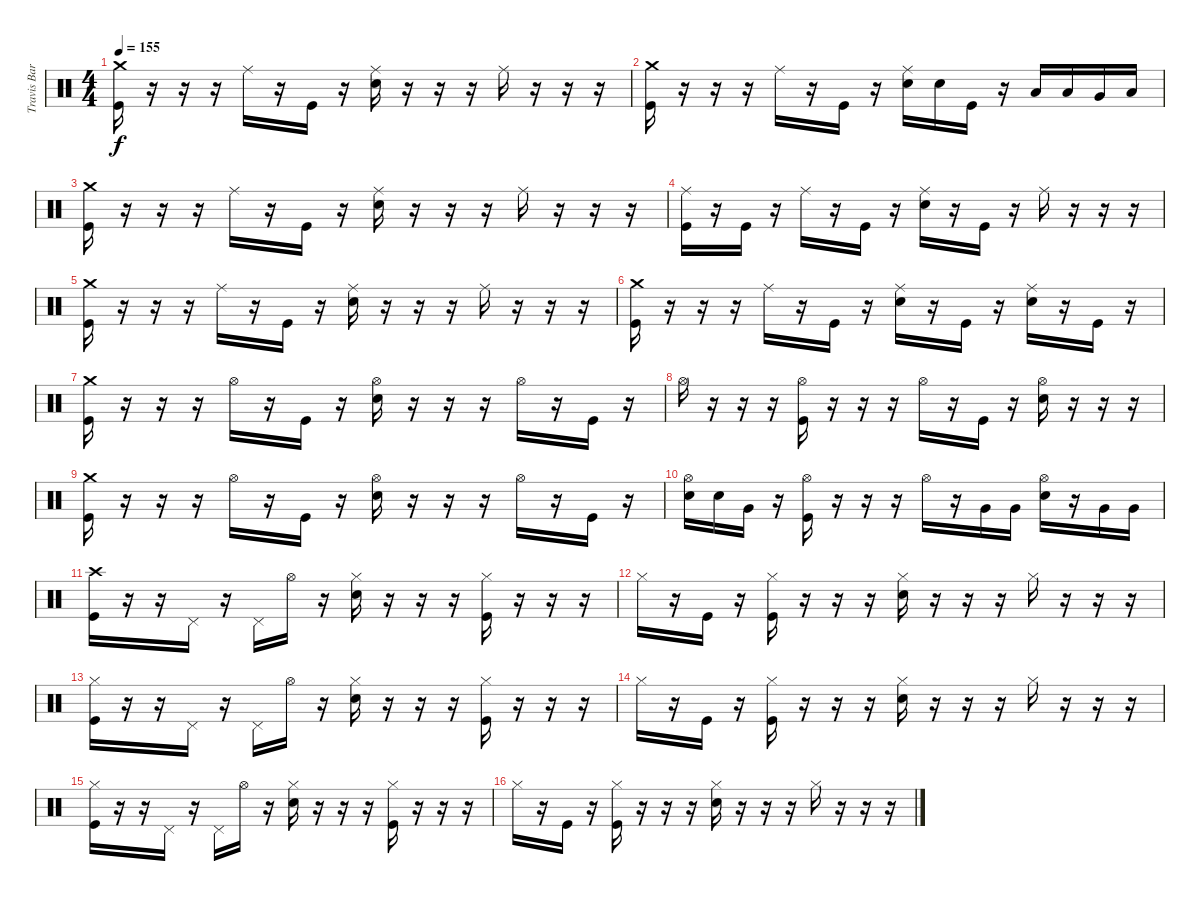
\track ("Travis Barker(drums)" "Travis Bar") {instrument percussion}
\staff {score}
\articulation defaults
\ts (4 4)
\tempo 155
\clef neutral
\ks c
("Crash medium (hit)" "Kick (hit)").16{dy f} r.16 r.16 r.16 "Ride (middle)".16 r.16 "Kick (hit)".16 r.16 ("Ride (middle)" "Electric Snare (hit)").16 r.16 r.16 r.16 "Ride (middle)".16 r.16 r.16 r.16 |
("Crash medium (hit)" "Kick (hit)").16 r.16 r.16 r.16 "Ride (middle)".16 r.16 "Kick (hit)".16 r.16 ("Ride (middle)" "Electric Snare (hit)").16 "Electric Snare (hit)".16 "Kick (hit)".16 r.16 "Low Tom (hit)".16 "Low Tom (hit)".16 "Very Low Tom (hit)".16 "Low Floor Tom (hit)".16 |
("Crash medium (hit)" "Kick (hit)").16 r.16 r.16 r.16 "Ride (middle)".16 r.16 "Kick (hit)".16 r.16 ("Ride (middle)" "Electric Snare (hit)").16 r.16 r.16 r.16 "Ride (middle)".16 r.16 r.16 r.16 |
("Ride (middle)" "Kick (hit)").16 r.16 "Kick (hit)".16 r.16 "Ride (middle)".16 r.16 "Kick (hit)".16 r.16 ("Ride (middle)" "Electric Snare (hit)").16 r.16 "Kick (hit)".16 r.16 "Ride (middle)".16 r.16 r.16 r.16 |
("Crash medium (hit)" "Kick (hit)").16 r.16 r.16 r.16 "Ride (middle)".16 r.16 "Kick (hit)".16 r.16 ("Ride (middle)" "Electric Snare (hit)").16 r.16 r.16 r.16 "Ride (middle)".16 r.16 r.16 r.16 |
("Crash medium (hit)" "Kick (hit)").16 r.16 r.16 r.16 "Ride (middle)".16 r.16 "Kick (hit)".16 r.16 ("Ride (middle)" "Electric Snare (hit)").16 r.16 "Kick (hit)".16 r.16 ("Ride (middle)" "Electric Snare (hit)").16 r.16 "Kick (hit)".16 r.16 |
("Crash medium (hit)" "Kick (hit)").16 r.16 r.16 r.16 "Hi-Hat (open)".16 r.16 "Kick (hit)".16 r.16 ("Hi-Hat (open)" "Electric Snare (hit)").16 r.16 r.16 r.16 "Hi-Hat (open)".16 r.16 "Kick (hit)".16 r.16 |
"Hi-Hat (open)".16 r.16 r.16 r.16 ("Hi-Hat (open)" "Kick (hit)").16 r.16 r.16 r.16 "Hi-Hat (open)".16 r.16 "Kick (hit)".16 r.16 ("Hi-Hat (open)" "Electric Snare (hit)").16 r.16 r.16 r.16 |
("Crash medium (hit)" "Kick (hit)").16 r.16 r.16 r.16 "Hi-Hat (open)".16 r.16 "Kick (hit)".16 r.16 ("Hi-Hat (open)" "Electric Snare (hit)").16 r.16 r.16 r.16 "Hi-Hat (open)".16 r.16 "Kick (hit)".16 r.16 |
("Hi-Hat (open)" "Electric Snare (hit)").16 "Electric Snare (hit)".16 "Very Low Tom (hit)".16 r.16 ("Hi-Hat (open)" "Kick (hit)").16 r.16 r.16 r.16 "Hi-Hat (open)".16 r.16 "Very Low Tom (hit)".16 "Very Low Tom (hit)".16 ("Hi-Hat (open)" "Electric Snare (hit)").16 r.16 "Very Low Tom (hit)".16 "Very Low Tom (hit)".16 |
("Crash high (hit)" "Kick (hit)").16 r.16 r.16 "Pedal Hi-Hat (hit)".16 r.16 "Pedal Hi-Hat (hit)".16 "Hi-Hat (open)".16 r.16 ("Hi-Hat (closed)" "Electric Snare (hit)").16 r.16 r.16 r.16 ("Hi-Hat (closed)" "Kick (hit)").16 r.16 r.16 r.16 |
"Hi-Hat (closed)".16 r.16 "Kick (hit)".16 r.16 ("Hi-Hat (closed)" "Kick (hit)").16 r.16 r.16 r.16 ("Hi-Hat (closed)" "Electric Snare (hit)").16 r.16 r.16 r.16 "Hi-Hat (closed)".16 r.16 r.16 r.16 |
("Hi-Hat (closed)" "Kick (hit)").16 r.16 r.16 "Pedal Hi-Hat (hit)".16 r.16 "Pedal Hi-Hat (hit)".16 "Hi-Hat (open)".16 r.16 ("Hi-Hat (closed)" "Electric Snare (hit)").16 r.16 r.16 r.16 ("Hi-Hat (closed)" "Kick (hit)").16 r.16 r.16 r.16 |
"Hi-Hat (closed)".16 r.16 "Kick (hit)".16 r.16 ("Hi-Hat (closed)" "Kick (hit)").16 r.16 r.16 r.16 ("Hi-Hat (closed)" "Electric Snare (hit)").16 r.16 r.16 r.16 "Hi-Hat (closed)".16 r.16 r.16 r.16 |
("Hi-Hat (closed)" "Kick (hit)").16 r.16 r.16 "Pedal Hi-Hat (hit)".16 r.16 "Pedal Hi-Hat (hit)".16 "Hi-Hat (open)".16 r.16 ("Hi-Hat (closed)" "Electric Snare (hit)").16 r.16 r.16 r.16 ("Hi-Hat (closed)" "Kick (hit)").16 r.16 r.16 r.16 |
"Hi-Hat (closed)".16 r.16 "Kick (hit)".16 r.16 ("Hi-Hat (closed)" "Kick (hit)").16 r.16 r.16 r.16 ("Hi-Hat (closed)" "Electric Snare (hit)").16 r.16 r.16 r.16 "Hi-Hat (closed)".16 r.16 r.16 r.16
